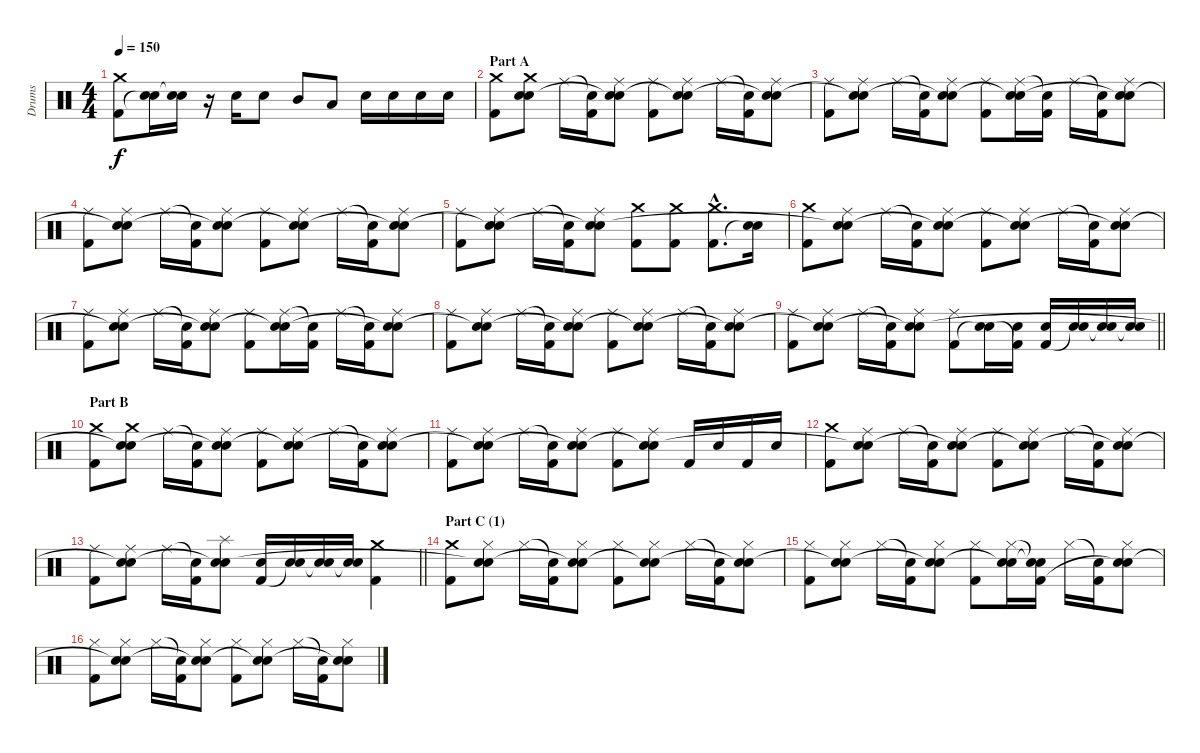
\track ("Drums" "Drums") {instrument percussion}
\staff {score}
\articulation defaults
\ts (4 4)
\tempo 150
\clef neutral
\ks c
("Crash medium (hit)" "Kick (hit) 2").8{dy f} ("Electric Snare (hit)" "Snare (hit)"{t}).16 ("Electric Snare (hit)" "Snare (hit)"{t}).16 r.16 "Electric Snare (hit)".16 "Electric Snare (hit)".8 "Mid Tom (hit)".8 "Low Tom (hit)".8 "Electric Snare (hit)".16 "Electric Snare (hit)".16 "Electric Snare (hit)".16 "Electric Snare (hit)".16 |
\section ("" "Part A")
("Crash medium (hit)" "Kick (hit) 2").8 ("Crash medium (hit)" "Electric Snare (hit)" "Snare (hit)").8 "Ride (middle)".16 ("Snare (hit)"{t} "Kick (hit) 2").16 ("Ride (middle)" "Electric Snare (hit)" "Snare (hit)"{t}).8 ("Ride (middle)" "Kick (hit) 2").8 ("Ride (middle)" "Electric Snare (hit)" "Snare (hit)"{t}).8 "Ride (middle)".16 ("Snare (hit)"{t} "Kick (hit) 2").16 ("Ride (middle)" "Electric Snare (hit)" "Snare (hit)"{t}).8 |
("Ride (middle)" "Kick (hit) 2").8 ("Ride (middle)" "Electric Snare (hit)" "Snare (hit)"{t}).8 "Ride (middle)".16 ("Snare (hit)"{t} "Kick (hit) 2").16 ("Ride (middle)" "Electric Snare (hit)" "Snare (hit)"{t}).8 ("Ride (middle)" "Kick (hit) 2").8 ("Ride (middle)" "Electric Snare (hit)" "Snare (hit)"{t}).16 ("Snare (hit)"{t} "Kick (hit) 2").16 "Ride (middle)".16 ("Snare (hit)"{t} "Kick (hit) 2").16 ("Ride (middle)" "Electric Snare (hit)" "Snare (hit)"{t}).8 |
("Ride (middle)" "Kick (hit) 2").8 ("Ride (middle)" "Electric Snare (hit)" "Snare (hit)"{t}).8 "Ride (middle)".16 ("Snare (hit)"{t} "Kick (hit) 2").16 ("Ride (middle)" "Electric Snare (hit)" "Snare (hit)"{t}).8 ("Ride (middle)" "Kick (hit) 2").8 ("Ride (middle)" "Electric Snare (hit)" "Snare (hit)"{t}).8 "Ride (middle)".16 ("Snare (hit)"{t} "Kick (hit) 2").16 ("Ride (middle)" "Electric Snare (hit)" "Snare (hit)"{t}).8 |
("Ride (middle)" "Kick (hit) 2").8 ("Ride (middle)" "Electric Snare (hit)" "Snare (hit)"{t}).8 "Ride (middle)".16 ("Snare (hit)"{t} "Kick (hit) 2").16 ("Ride (middle)" "Electric Snare (hit)" "Snare (hit)"{t}).8 ("Crash medium (hit)" "Kick (hit) 2").8 ("Crash medium (hit)" "Kick (hit) 2").8 ("Crash medium (hit)"{hac} "Kick (hit) 2"{hac}).8{d} ("Electric Snare (hit)" "Snare (hit)"{t}).16 |
("Crash medium (hit)" "Kick (hit) 2").8 ("Ride (middle)" "Electric Snare (hit)" "Snare (hit)"{t}).8 "Ride (middle)".16 ("Snare (hit)"{t} "Kick (hit) 2").16 ("Ride (middle)" "Electric Snare (hit)" "Snare (hit)"{t}).8 ("Ride (middle)" "Kick (hit) 2").8 ("Ride (middle)" "Electric Snare (hit)" "Snare (hit)"{t}).8 "Ride (middle)".16 ("Snare (hit)"{t} "Kick (hit) 2").16 ("Ride (middle)" "Electric Snare (hit)" "Snare (hit)"{t}).8 |
("Ride (middle)" "Kick (hit) 2").8 ("Ride (middle)" "Electric Snare (hit)" "Snare (hit)"{t}).8 "Ride (middle)".16 ("Snare (hit)"{t} "Kick (hit) 2").16 ("Ride (middle)" "Electric Snare (hit)" "Snare (hit)"{t}).8 ("Ride (middle)" "Kick (hit) 2").8 ("Ride (middle)" "Electric Snare (hit)" "Snare (hit)"{t}).16 ("Snare (hit)"{t} "Kick (hit) 2").16 "Ride (middle)".16 ("Snare (hit)"{t} "Kick (hit) 2").16 ("Ride (middle)" "Electric Snare (hit)" "Snare (hit)"{t}).8 |
("Ride (middle)" "Kick (hit) 2").8 ("Ride (middle)" "Electric Snare (hit)" "Snare (hit)"{t}).8 "Ride (middle)".16 ("Snare (hit)"{t} "Kick (hit) 2").16 ("Ride (middle)" "Electric Snare (hit)" "Snare (hit)"{t}).8 ("Ride (middle)" "Kick (hit) 2").8 ("Ride (middle)" "Electric Snare (hit)" "Snare (hit)"{t}).8 "Ride (middle)".16 ("Snare (hit)"{t} "Kick (hit) 2").16 ("Ride (middle)" "Electric Snare (hit)" "Snare (hit)"{t}).8 |
\barLineRight lightlight
("Ride (middle)" "Kick (hit) 2").8 ("Ride (middle)" "Electric Snare (hit)" "Snare (hit)"{t}).8 "Ride (middle)".16 ("Snare (hit)"{t} "Kick (hit) 2").16 ("Ride (middle)" "Electric Snare (hit)" "Snare (hit)"{t}).8 ("Ride (middle)" "Kick (hit) 2").8 ("Electric Snare (hit)" "Snare (hit)"{t}).16 ("Electric Snare (hit)" "Kick (hit) 2"{t}).16 ("Electric Snare (hit)" "Kick (hit) 2").16 ("Electric Snare (hit)" "Snare (hit)"{t}).16 ("Electric Snare (hit)" "Snare (hit)"{t}).16 ("Electric Snare (hit)" "Snare (hit)"{t}).16 |
\section ("" "Part B")
("Crash medium (hit)" "Kick (hit) 2").8 ("Crash medium (hit)" "Electric Snare (hit)" "Snare (hit)"{t}).8 "Ride (middle)".16 ("Snare (hit)"{t} "Kick (hit) 2").16 ("Ride (middle)" "Electric Snare (hit)" "Snare (hit)"{t}).8 ("Ride (middle)" "Kick (hit) 2").8 ("Ride (middle)" "Electric Snare (hit)" "Snare (hit)"{t}).8 "Ride (middle)".16 ("Snare (hit)"{t} "Kick (hit) 2").16 ("Ride (middle)" "Electric Snare (hit)" "Snare (hit)"{t}).8 |
("Ride (middle)" "Kick (hit) 2").8 ("Ride (middle)" "Electric Snare (hit)" "Snare (hit)"{t}).8 "Ride (middle)".16 ("Snare (hit)"{t} "Kick (hit) 2").16 ("Ride (middle)" "Electric Snare (hit)" "Snare (hit)"{t}).8 ("Ride (middle)" "Kick (hit) 2").8 ("Ride (middle)" "Electric Snare (hit)" "Snare (hit)"{t}).8 "Kick (hit) 2".16 "Electric Snare (hit)".16 "Kick (hit) 2".16 "Electric Snare (hit)".16 |
("Crash medium (hit)" "Kick (hit) 2").8 ("Ride (middle)" "Electric Snare (hit)" "Snare (hit)"{t}).8 "Ride (middle)".16 ("Snare (hit)"{t} "Kick (hit) 2").16 ("Ride (middle)" "Electric Snare (hit)" "Snare (hit)"{t}).8 ("Ride (middle)" "Kick (hit) 2").8 ("Ride (middle)" "Electric Snare (hit)" "Snare (hit)"{t}).8 "Ride (middle)".16 ("Snare (hit)"{t} "Kick (hit) 2").16 ("Ride (middle)" "Electric Snare (hit)" "Snare (hit)"{t}).8 |
\barLineRight lightlight
("Ride (middle)" "Kick (hit) 2").8 ("Ride (middle)" "Electric Snare (hit)" "Snare (hit)"{t}).8 "Ride (middle)".16 ("Snare (hit)"{t} "Kick (hit) 2").16 ("Splash (hit)" "Electric Snare (hit)" "Snare (hit)"{t}).8 ("Electric Snare (hit)" "Kick (hit) 2").16 ("Electric Snare (hit)" "Snare (hit)"{t}).16 ("Electric Snare (hit)" "Snare (hit)"{t}).16 ("Electric Snare (hit)" "Snare (hit)"{t}).16 ("Crash medium (hit)" "Kick (hit) 2").4 |
\section ("" "Part C (1)")
("Crash medium (hit)" "Kick (hit) 2").8 ("Hi-Hat (closed)" "Electric Snare (hit)" "Snare (hit)"{t}).8 "Hi-Hat (closed)".16 ("Snare (hit)"{t} "Kick (hit) 2").16 ("Hi-Hat (closed)" "Electric Snare (hit)" "Snare (hit)"{t}).8 ("Hi-Hat (closed)" "Kick (hit) 2").8 ("Hi-Hat (closed)" "Electric Snare (hit)" "Snare (hit)"{t}).8 "Hi-Hat (closed)".16 ("Snare (hit)"{t} "Kick (hit) 2").16 ("Hi-Hat (closed)" "Electric Snare (hit)" "Snare (hit)"{t}).8 |
("Hi-Hat (closed)" "Kick (hit) 2").8 ("Hi-Hat (closed)" "Electric Snare (hit)" "Snare (hit)"{t}).8 "Hi-Hat (closed)".16 ("Snare (hit)"{t} "Kick (hit) 2").16 ("Hi-Hat (closed)" "Electric Snare (hit)" "Snare (hit)"{t}).8 ("Hi-Hat (closed)" "Kick (hit) 2").8 ("Hi-Hat (closed)" "Electric Snare (hit)" "Snare (hit)"{t}).16 ("Snare (hit)"{t} "Snare (hit)"{t} "Kick (hit) 2").16 "Hi-Hat (closed)".16 ("Snare (hit)"{t} "Kick (hit) 2").16 ("Hi-Hat (closed)" "Electric Snare (hit)" "Snare (hit)"{t}).8 |
("Hi-Hat (closed)" "Kick (hit) 2").8 ("Hi-Hat (closed)" "Electric Snare (hit)" "Snare (hit)"{t}).8 "Hi-Hat (closed)".16 ("Snare (hit)"{t} "Kick (hit) 2").16 ("Hi-Hat (closed)" "Electric Snare (hit)" "Snare (hit)"{t}).8 ("Hi-Hat (closed)" "Kick (hit) 2").8 ("Hi-Hat (closed)" "Electric Snare (hit)" "Snare (hit)"{t}).8 "Hi-Hat (closed)".16 ("Snare (hit)"{t} "Kick (hit) 2").16 ("Hi-Hat (closed)" "Electric Snare (hit)" "Snare (hit)"{t}).8
